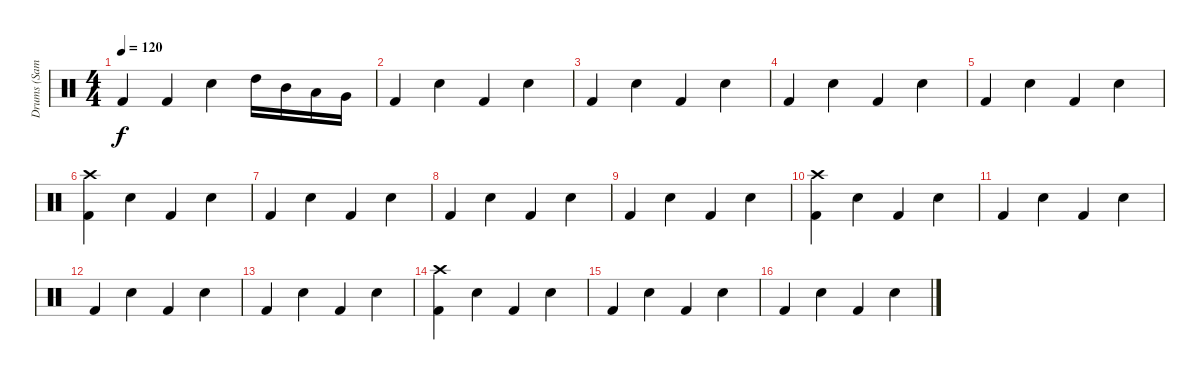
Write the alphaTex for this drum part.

\track ("Drums (Sami Karppinen)" "Drums (Sam") {instrument percussion}
\staff {score}
\articulation defaults
\ts (4 4)
\tempo 120
\clef neutral
\ks c "Kick (hit) 2".4{dy f} "Kick (hit) 2".4 "Electric Snare (hit)".4 "High Tom (hit)".16 "Mid Tom (hit)".16 "Low Tom (hit)".16 "Very Low Tom (hit)".16
|
"Kick (hit) 2".4 "Electric Snare (hit)".4 "Kick (hit) 2".4 "Electric Snare (hit)".4 |
"Kick (hit) 2".4 "Electric Snare (hit)".4 "Kick (hit) 2".4 "Electric Snare (hit)".4 |
"Kick (hit) 2".4 "Electric Snare (hit)".4 "Kick (hit) 2".4 "Electric Snare (hit)".4 |
"Kick (hit) 2".4 "Electric Snare (hit)".4 "Kick (hit) 2".4 "Electric Snare (hit)".4 |
("Crash high (hit)" "Kick (hit) 2").4 "Electric Snare (hit)".4 "Kick (hit) 2".4 "Electric Snare (hit)".4 |
"Kick (hit) 2".4 "Electric Snare (hit)".4 "Kick (hit) 2".4 "Electric Snare (hit)".4 |
"Kick (hit) 2".4 "Electric Snare (hit)".4 "Kick (hit) 2".4 "Electric Snare (hit)".4 |
"Kick (hit) 2".4 "Electric Snare (hit)".4 "Kick (hit) 2".4 "Electric Snare (hit)".4 |
("Crash high (hit)" "Kick (hit) 2").4 "Electric Snare (hit)".4 "Kick (hit) 2".4 "Electric Snare (hit)".4 |
"Kick (hit) 2".4 "Electric Snare (hit)".4 "Kick (hit) 2".4 "Electric Snare (hit)".4 |
"Kick (hit) 2".4 "Electric Snare (hit)".4 "Kick (hit) 2".4 "Electric Snare (hit)".4 |
"Kick (hit) 2".4 "Electric Snare (hit)".4 "Kick (hit) 2".4 "Electric Snare (hit)".4 |
("Crash high (hit)" "Kick (hit) 2").4 "Electric Snare (hit)".4 "Kick (hit) 2".4 "Electric Snare (hit)".4 |
"Kick (hit) 2".4 "Electric Snare (hit)".4 "Kick (hit) 2".4 "Electric Snare (hit)".4 |
"Kick (hit) 2".4 "Electric Snare (hit)".4 "Kick (hit) 2".4 "Electric Snare (hit)".4
